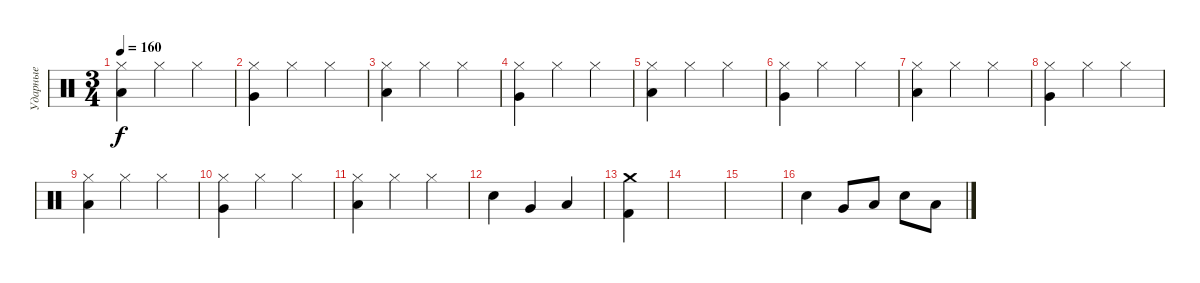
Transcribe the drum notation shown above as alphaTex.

\track ("Ударные" "Ударные") {instrument percussion}
\staff {score}
\articulation defaults
\ts (3 4)
\tempo 160
\clef neutral
\ks c
("Hi-Hat (closed)" "Low Floor Tom (hit)").4{dy f} "Hi-Hat (closed)".4 "Hi-Hat (closed)".4 |
("Hi-Hat (closed)" "Very Low Tom (hit)").4 "Hi-Hat (closed)".4 "Hi-Hat (closed)".4 |
("Hi-Hat (closed)" "Low Floor Tom (hit)").4 "Hi-Hat (closed)".4 "Hi-Hat (closed)".4 |
("Hi-Hat (closed)" "Very Low Tom (hit)").4 "Hi-Hat (closed)".4 "Hi-Hat (closed)".4 |
("Hi-Hat (closed)" "Low Floor Tom (hit)").4 "Hi-Hat (closed)".4 "Hi-Hat (closed)".4 |
("Hi-Hat (closed)" "Very Low Tom (hit)").4 "Hi-Hat (closed)".4 "Hi-Hat (closed)".4 |
("Hi-Hat (closed)" "Low Floor Tom (hit)").4 "Hi-Hat (closed)".4 "Hi-Hat (closed)".4 |
("Hi-Hat (closed)" "Very Low Tom (hit)").4 "Hi-Hat (closed)".4 "Hi-Hat (closed)".4 |
("Hi-Hat (closed)" "Low Floor Tom (hit)").4 "Hi-Hat (closed)".4 "Hi-Hat (closed)".4 |
("Hi-Hat (closed)" "Very Low Tom (hit)").4 "Hi-Hat (closed)".4 "Hi-Hat (closed)".4 |
("Hi-Hat (closed)" "Low Floor Tom (hit)").4 "Hi-Hat (closed)".4 "Hi-Hat (closed)".4 |
"Snare (hit) 2".4 "Very Low Tom (hit)".4 "Low Floor Tom (hit)".4 |
("Crash medium (hit)" "Kick (hit) 2").4 |
|
|
"Snare (hit) 2".4 "Very Low Tom (hit)".8 "Low Floor Tom (hit)".8 "Snare (hit) 2".8 "Low Floor Tom (hit)".8
